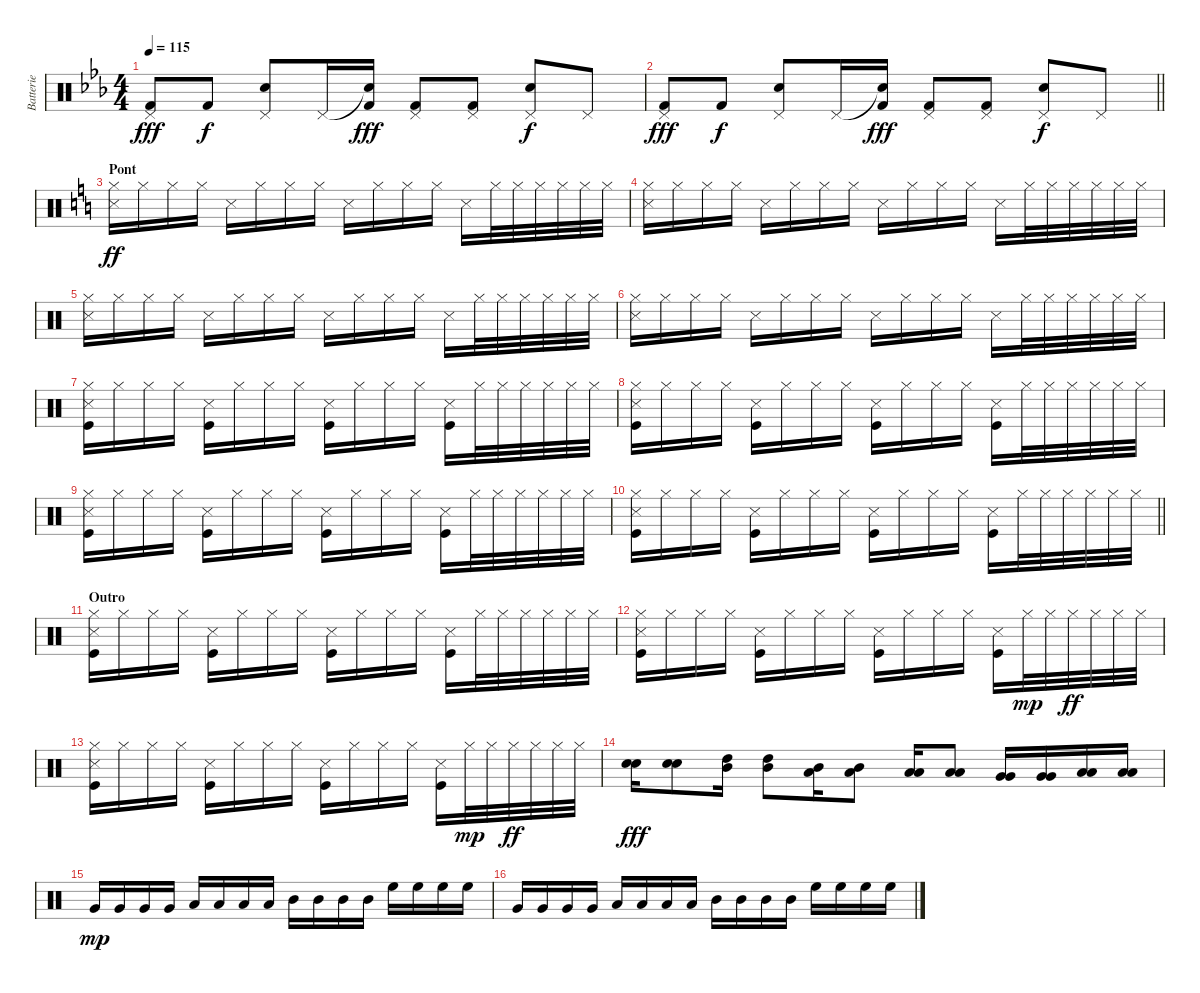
\track ("Batterie" "Batterie") {instrument percussion}
\staff {score}
\articulation defaults
\ts (4 4)
\tempo 115
\clef neutral
\ks eb
("Pedal Hi-Hat (hit)" "Kick (hit) 2").8{dy fff} "Kick (hit) 2".8{dy f} ("Pedal Hi-Hat (hit)" "Snare (hit) 2").8 "Pedal Hi-Hat (hit)".16 ("Snare (hit)"{t} "Kick (hit) 2").16{dy fff} ("Pedal Hi-Hat (hit)" "Kick (hit) 2").8 ("Pedal Hi-Hat (hit)" "Kick (hit) 2").8 ("Pedal Hi-Hat (hit)" "Snare (hit) 2").8{dy f} "Pedal Hi-Hat (hit)".8 |
\barLineRight lightlight
("Pedal Hi-Hat (hit)" "Kick (hit) 2").8{dy fff} "Kick (hit) 2".8{dy f} ("Pedal Hi-Hat (hit)" "Snare (hit) 2").8 "Pedal Hi-Hat (hit)".16 ("Snare (hit)"{t} "Kick (hit) 2").16{dy fff} ("Pedal Hi-Hat (hit)" "Kick (hit) 2").8 ("Pedal Hi-Hat (hit)" "Kick (hit) 2").8 ("Pedal Hi-Hat (hit)" "Snare (hit) 2").8{dy f} "Pedal Hi-Hat (hit)".8 |
\section ("" "Pont")
\ks c
("Snare (side stick) 3" "Hi-Hat (closed)").16{dy ff volume 16} "Hi-Hat (closed)".16 "Hi-Hat (closed)".16 "Hi-Hat (closed)".16 "Snare (side stick) 3".16 "Hi-Hat (closed)".16 "Hi-Hat (closed)".16 "Hi-Hat (closed)".16 "Snare (side stick) 3".16 "Hi-Hat (closed)".16 "Hi-Hat (closed)".16 "Hi-Hat (closed)".16 "Snare (side stick) 3".16 "Hi-Hat (closed)".32 "Hi-Hat (closed)".32 "Hi-Hat (closed)".32 "Hi-Hat (closed)".32 "Hi-Hat (closed)".32 "Hi-Hat (closed)".32 |
("Snare (side stick) 3" "Hi-Hat (closed)").16 "Hi-Hat (closed)".16 "Hi-Hat (closed)".16 "Hi-Hat (closed)".16 "Snare (side stick) 3".16 "Hi-Hat (closed)".16 "Hi-Hat (closed)".16 "Hi-Hat (closed)".16 "Snare (side stick) 3".16 "Hi-Hat (closed)".16 "Hi-Hat (closed)".16 "Hi-Hat (closed)".16 "Snare (side stick) 3".16 "Hi-Hat (closed)".32 "Hi-Hat (closed)".32 "Hi-Hat (closed)".32 "Hi-Hat (closed)".32 "Hi-Hat (closed)".32 "Hi-Hat (closed)".32 |
("Snare (side stick) 3" "Hi-Hat (closed)").16 "Hi-Hat (closed)".16 "Hi-Hat (closed)".16 "Hi-Hat (closed)".16 "Snare (side stick) 3".16 "Hi-Hat (closed)".16 "Hi-Hat (closed)".16 "Hi-Hat (closed)".16 "Snare (side stick) 3".16 "Hi-Hat (closed)".16 "Hi-Hat (closed)".16 "Hi-Hat (closed)".16 "Snare (side stick) 3".16 "Hi-Hat (closed)".32 "Hi-Hat (closed)".32 "Hi-Hat (closed)".32 "Hi-Hat (closed)".32 "Hi-Hat (closed)".32 "Hi-Hat (closed)".32 |
("Snare (side stick) 3" "Hi-Hat (closed)").16 "Hi-Hat (closed)".16 "Hi-Hat (closed)".16 "Hi-Hat (closed)".16 "Snare (side stick) 3".16 "Hi-Hat (closed)".16 "Hi-Hat (closed)".16 "Hi-Hat (closed)".16 "Snare (side stick) 3".16 "Hi-Hat (closed)".16 "Hi-Hat (closed)".16 "Hi-Hat (closed)".16 "Snare (side stick) 3".16 "Hi-Hat (closed)".32 "Hi-Hat (closed)".32 "Hi-Hat (closed)".32 "Hi-Hat (closed)".32 "Hi-Hat (closed)".32 "Hi-Hat (closed)".32 |
("Snare (side stick) 3" "Hi-Hat (closed)" "Kick (hit)").16 "Hi-Hat (closed)".16 "Hi-Hat (closed)".16 "Hi-Hat (closed)".16 ("Snare (side stick) 3" "Kick (hit)").16 "Hi-Hat (closed)".16 "Hi-Hat (closed)".16 "Hi-Hat (closed)".16 ("Kick (hit)" "Snare (side stick) 3").16 "Hi-Hat (closed)".16 "Hi-Hat (closed)".16 "Hi-Hat (closed)".16 ("Kick (hit)" "Snare (side stick) 3").16 "Hi-Hat (closed)".32 "Hi-Hat (closed)".32 "Hi-Hat (closed)".32 "Hi-Hat (closed)".32 "Hi-Hat (closed)".32 "Hi-Hat (closed)".32 |
("Snare (side stick) 3" "Hi-Hat (closed)" "Kick (hit)").16 "Hi-Hat (closed)".16 "Hi-Hat (closed)".16 "Hi-Hat (closed)".16 ("Snare (side stick) 3" "Kick (hit)").16 "Hi-Hat (closed)".16 "Hi-Hat (closed)".16 "Hi-Hat (closed)".16 ("Kick (hit)" "Snare (side stick) 3").16 "Hi-Hat (closed)".16 "Hi-Hat (closed)".16 "Hi-Hat (closed)".16 ("Kick (hit)" "Snare (side stick) 3").16 "Hi-Hat (closed)".32 "Hi-Hat (closed)".32 "Hi-Hat (closed)".32 "Hi-Hat (closed)".32 "Hi-Hat (closed)".32 "Hi-Hat (closed)".32 |
("Snare (side stick) 3" "Hi-Hat (closed)" "Kick (hit)").16 "Hi-Hat (closed)".16 "Hi-Hat (closed)".16 "Hi-Hat (closed)".16 ("Snare (side stick) 3" "Kick (hit)").16 "Hi-Hat (closed)".16 "Hi-Hat (closed)".16 "Hi-Hat (closed)".16 ("Kick (hit)" "Snare (side stick) 3").16 "Hi-Hat (closed)".16 "Hi-Hat (closed)".16 "Hi-Hat (closed)".16 ("Kick (hit)" "Snare (side stick) 3").16 "Hi-Hat (closed)".32 "Hi-Hat (closed)".32 "Hi-Hat (closed)".32 "Hi-Hat (closed)".32 "Hi-Hat (closed)".32 "Hi-Hat (closed)".32 |
\barLineRight lightlight
("Snare (side stick) 3" "Hi-Hat (closed)" "Kick (hit)").16 "Hi-Hat (closed)".16 "Hi-Hat (closed)".16 "Hi-Hat (closed)".16 ("Snare (side stick) 3" "Kick (hit)").16 "Hi-Hat (closed)".16 "Hi-Hat (closed)".16 "Hi-Hat (closed)".16 ("Kick (hit)" "Snare (side stick) 3").16 "Hi-Hat (closed)".16 "Hi-Hat (closed)".16 "Hi-Hat (closed)".16 ("Kick (hit)" "Snare (side stick) 3").16 "Hi-Hat (closed)".32 "Hi-Hat (closed)".32 "Hi-Hat (closed)".32 "Hi-Hat (closed)".32 "Hi-Hat (closed)".32 "Hi-Hat (closed)".32 |
\section ("" "Outro")
("Snare (side stick) 3" "Hi-Hat (closed)" "Kick (hit)").16 "Hi-Hat (closed)".16 "Hi-Hat (closed)".16 "Hi-Hat (closed)".16 ("Snare (side stick) 3" "Kick (hit)").16 "Hi-Hat (closed)".16 "Hi-Hat (closed)".16 "Hi-Hat (closed)".16 ("Kick (hit)" "Snare (side stick) 3").16 "Hi-Hat (closed)".16 "Hi-Hat (closed)".16 "Hi-Hat (closed)".16 ("Kick (hit)" "Snare (side stick) 3").16 "Hi-Hat (closed)".32 "Hi-Hat (closed)".32 "Hi-Hat (closed)".32 "Hi-Hat (closed)".32 "Hi-Hat (closed)".32 "Hi-Hat (closed)".32 |
("Snare (side stick) 3" "Hi-Hat (closed)" "Kick (hit)").16 "Hi-Hat (closed)".16 "Hi-Hat (closed)".16 "Hi-Hat (closed)".16 ("Snare (side stick) 3" "Kick (hit)").16 "Hi-Hat (closed)".16 "Hi-Hat (closed)".16 "Hi-Hat (closed)".16 ("Kick (hit)" "Snare (side stick) 3").16 "Hi-Hat (closed)".16 "Hi-Hat (closed)".16 "Hi-Hat (closed)".16 ("Kick (hit)" "Snare (side stick) 3").16 "Hi-Hat (closed)".32{dy mp} "Hi-Hat (closed)".32 "Hi-Hat (closed)".32{dy ff} "Hi-Hat (closed)".32 "Hi-Hat (closed)".32 "Hi-Hat (closed)".32 |
("Snare (side stick) 3" "Hi-Hat (closed)" "Kick (hit)").16 "Hi-Hat (closed)".16 "Hi-Hat (closed)".16 "Hi-Hat (closed)".16 ("Snare (side stick) 3" "Kick (hit)").16 "Hi-Hat (closed)".16 "Hi-Hat (closed)".16 "Hi-Hat (closed)".16 ("Kick (hit)" "Snare (side stick) 3").16 "Hi-Hat (closed)".16 "Hi-Hat (closed)".16 "Hi-Hat (closed)".16 ("Kick (hit)" "Snare (side stick) 3").16 "Hi-Hat (closed)".32{dy mp} "Hi-Hat (closed)".32 "Hi-Hat (closed)".32{dy ff} "Hi-Hat (closed)".32 "Hi-Hat (closed)".32 "Hi-Hat (closed)".32 |
("Snare (hit) 2" "Snare (hit) 2").16{dy fff} ("Snare (hit) 2" "Snare (hit) 2").8 ("High Tom (hit)" "Mid Tom (hit)").16 ("High Tom (hit)" "Mid Tom (hit)").8 ("Mid Tom (hit)" "Low Tom (hit)").16 ("Mid Tom (hit)" "Low Tom (hit)").8 ("Low Tom (hit)" "Low Floor Tom (hit)").16 ("Low Tom (hit)" "Low Floor Tom (hit)").8 ("Very Low Tom (hit)" "Very Low Tom (hit)").16 ("Very Low Tom (hit)" "Very Low Tom (hit)").16 ("Low Floor Tom (hit)" "Low Floor Tom (hit)").16 ("Low Floor Tom (hit)" "Low Floor Tom (hit)").16 |
"Very Low Tom (hit)".16{dy mp} "Very Low Tom (hit)".16 "Very Low Tom (hit)".16 "Very Low Tom (hit)".16 "Low Tom (hit)".16 "Low Tom (hit)".16 "Low Tom (hit)".16 "Low Tom (hit)".16 "Mid Tom (hit)".16 "Mid Tom (hit)".16 "Mid Tom (hit)".16 "Mid Tom (hit)".16 "High Floor Tom (hit)".16 "High Floor Tom (hit)".16 "High Floor Tom (hit)".16 "High Floor Tom (hit)".16 |
"Very Low Tom (hit)".16 "Very Low Tom (hit)".16 "Very Low Tom (hit)".16 "Very Low Tom (hit)".16 "Low Tom (hit)".16 "Low Tom (hit)".16 "Low Tom (hit)".16 "Low Tom (hit)".16 "Mid Tom (hit)".16 "Mid Tom (hit)".16 "Mid Tom (hit)".16 "Mid Tom (hit)".16 "High Floor Tom (hit)".16 "High Floor Tom (hit)".16 "High Floor Tom (hit)".16 "High Floor Tom (hit)".16
